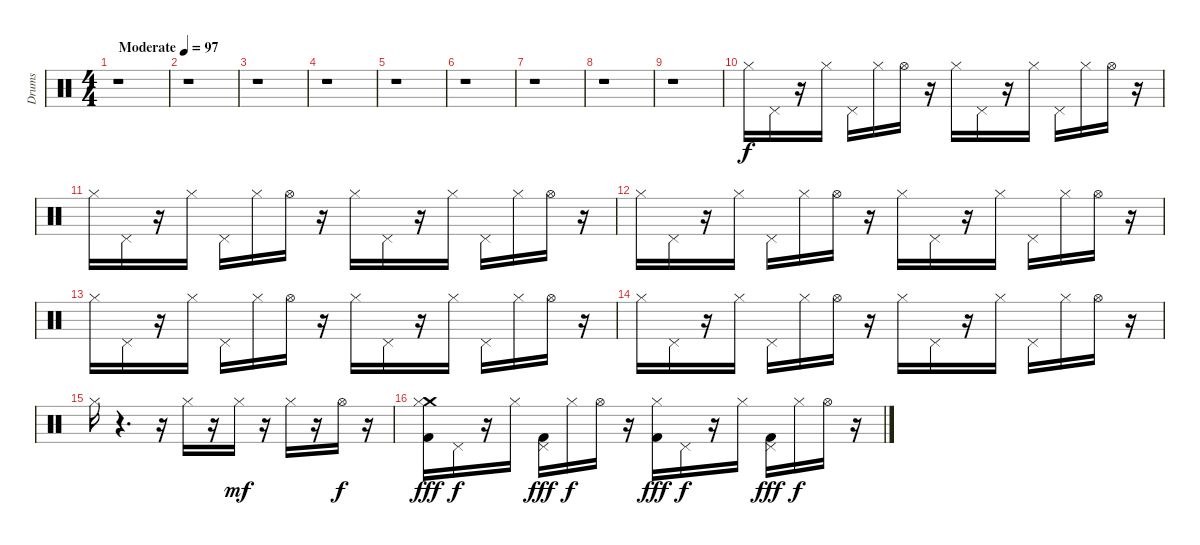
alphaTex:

\track ("Drums" "Drums") {instrument percussion}
\staff {score}
\articulation defaults
\ts (4 4)
\tempo (97 "Moderate")
\clef neutral
\ks c
r.1{dy f} |
r.1 |
r.1 |
r.1 |
r.1 |
r.1 |
r.1 |
r.1 |
r.1 |
"Hi-Hat (closed)".16 "Pedal Hi-Hat (hit)".16 r.16 "Hi-Hat (closed)".16 "Pedal Hi-Hat (hit)".16 "Hi-Hat (closed)".16 "Hi-Hat (open)".16 r.16 "Hi-Hat (closed)".16 "Pedal Hi-Hat (hit)".16 r.16 "Hi-Hat (closed)".16 "Pedal Hi-Hat (hit)".16 "Hi-Hat (closed)".16 "Hi-Hat (open)".16 r.16 |
"Hi-Hat (closed)".16 "Pedal Hi-Hat (hit)".16 r.16 "Hi-Hat (closed)".16 "Pedal Hi-Hat (hit)".16 "Hi-Hat (closed)".16 "Hi-Hat (open)".16 r.16 "Hi-Hat (closed)".16 "Pedal Hi-Hat (hit)".16 r.16 "Hi-Hat (closed)".16 "Pedal Hi-Hat (hit)".16 "Hi-Hat (closed)".16 "Hi-Hat (open)".16 r.16 |
"Hi-Hat (closed)".16 "Pedal Hi-Hat (hit)".16 r.16 "Hi-Hat (closed)".16 "Pedal Hi-Hat (hit)".16 "Hi-Hat (closed)".16 "Hi-Hat (open)".16 r.16 "Hi-Hat (closed)".16 "Pedal Hi-Hat (hit)".16 r.16 "Hi-Hat (closed)".16 "Pedal Hi-Hat (hit)".16 "Hi-Hat (closed)".16 "Hi-Hat (open)".16 r.16 |
"Hi-Hat (closed)".16 "Pedal Hi-Hat (hit)".16 r.16 "Hi-Hat (closed)".16 "Pedal Hi-Hat (hit)".16 "Hi-Hat (closed)".16 "Hi-Hat (open)".16 r.16 "Hi-Hat (closed)".16 "Pedal Hi-Hat (hit)".16 r.16 "Hi-Hat (closed)".16 "Pedal Hi-Hat (hit)".16 "Hi-Hat (closed)".16 "Hi-Hat (open)".16 r.16 |
"Hi-Hat (closed)".16 "Pedal Hi-Hat (hit)".16 r.16 "Hi-Hat (closed)".16 "Pedal Hi-Hat (hit)".16 "Hi-Hat (closed)".16 "Hi-Hat (open)".16 r.16 "Hi-Hat (closed)".16 "Pedal Hi-Hat (hit)".16 r.16 "Hi-Hat (closed)".16 "Pedal Hi-Hat (hit)".16 "Hi-Hat (closed)".16 "Hi-Hat (open)".16 r.16 |
"Hi-Hat (closed)".16 r.4{d} r.16 "Hi-Hat (closed)".16 r.16 "Hi-Hat (closed)".16{dy mf} r.16 "Hi-Hat (closed)".16 r.16 "Hi-Hat (open)".16{dy f} r.16 |
("Crash medium (hit)" "Kick (hit) 2" "Hi-Hat (closed)").16{dy fff} "Pedal Hi-Hat (hit)".16{dy f} r.16 "Hi-Hat (closed)".16 ("Kick (hit) 2" "Pedal Hi-Hat (hit)").16{dy fff} "Hi-Hat (closed)".16{dy f} "Hi-Hat (open)".16 r.16 ("Kick (hit) 2" "Hi-Hat (closed)").16{dy fff} "Pedal Hi-Hat (hit)".16{dy f} r.16 "Hi-Hat (closed)".16 ("Kick (hit) 2" "Pedal Hi-Hat (hit)").16{dy fff} "Hi-Hat (closed)".16{dy f} "Hi-Hat (open)".16 r.16
